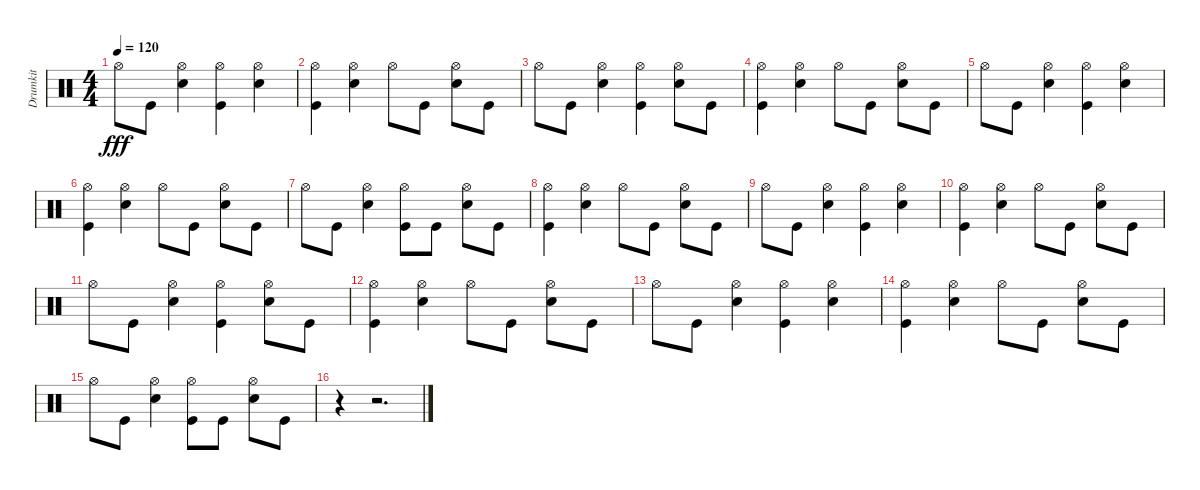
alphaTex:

\track ("Drumkit" "Drumkit") {instrument percussion}
\staff {score}
\articulation defaults
\ts (4 4)
\tempo 120
\clef neutral
\ks c "Hi-Hat (open)".8{dy fff} "Kick (hit)".8
("Snare (hit) 2" "Hi-Hat (open)").4 ("Hi-Hat (open)" "Kick (hit)").4 ("Hi-Hat (open)" "Snare (hit) 2").4 |
("Kick (hit)" "Hi-Hat (open)").4 ("Snare (hit) 2" "Hi-Hat (open)").4 "Hi-Hat (open)".8 "Kick (hit)".8 ("Hi-Hat (open)" "Snare (hit) 2").8 "Kick (hit)".8 |
"Hi-Hat (open)".8 "Kick (hit)".8 ("Snare (hit) 2" "Hi-Hat (open)").4 ("Hi-Hat (open)" "Kick (hit)").4 ("Hi-Hat (open)" "Snare (hit) 2").8 "Kick (hit)".8 |
("Kick (hit)" "Hi-Hat (open)").4 ("Snare (hit) 2" "Hi-Hat (open)").4 "Hi-Hat (open)".8 "Kick (hit)".8 ("Hi-Hat (open)" "Snare (hit) 2").8 "Kick (hit)".8 |
"Hi-Hat (open)".8 "Kick (hit)".8 ("Snare (hit) 2" "Hi-Hat (open)").4 ("Hi-Hat (open)" "Kick (hit)").4 ("Hi-Hat (open)" "Snare (hit) 2").4 |
("Kick (hit)" "Hi-Hat (open)").4 ("Snare (hit) 2" "Hi-Hat (open)").4 "Hi-Hat (open)".8 "Kick (hit)".8 ("Hi-Hat (open)" "Snare (hit) 2").8 "Kick (hit)".8 |
"Hi-Hat (open)".8 "Kick (hit)".8 ("Snare (hit) 2" "Hi-Hat (open)").4 ("Hi-Hat (open)" "Kick (hit)").8 "Kick (hit)".8 ("Hi-Hat (open)" "Snare (hit) 2").8 "Kick (hit)".8 |
("Kick (hit)" "Hi-Hat (open)").4 ("Snare (hit) 2" "Hi-Hat (open)").4 "Hi-Hat (open)".8 "Kick (hit)".8 ("Hi-Hat (open)" "Snare (hit) 2").8 "Kick (hit)".8 |
"Hi-Hat (open)".8 "Kick (hit)".8 ("Snare (hit) 2" "Hi-Hat (open)").4 ("Hi-Hat (open)" "Kick (hit)").4 ("Hi-Hat (open)" "Snare (hit) 2").4 |
("Kick (hit)" "Hi-Hat (open)").4 ("Snare (hit) 2" "Hi-Hat (open)").4 "Hi-Hat (open)".8 "Kick (hit)".8 ("Hi-Hat (open)" "Snare (hit) 2").8 "Kick (hit)".8 |
"Hi-Hat (open)".8 "Kick (hit)".8 ("Snare (hit) 2" "Hi-Hat (open)").4 ("Hi-Hat (open)" "Kick (hit)").4 ("Hi-Hat (open)" "Snare (hit) 2").8 "Kick (hit)".8 |
("Kick (hit)" "Hi-Hat (open)").4 ("Snare (hit) 2" "Hi-Hat (open)").4 "Hi-Hat (open)".8 "Kick (hit)".8 ("Hi-Hat (open)" "Snare (hit) 2").8 "Kick (hit)".8 |
"Hi-Hat (open)".8 "Kick (hit)".8 ("Snare (hit) 2" "Hi-Hat (open)").4 ("Hi-Hat (open)" "Kick (hit)").4 ("Hi-Hat (open)" "Snare (hit) 2").4 |
("Kick (hit)" "Hi-Hat (open)").4 ("Snare (hit) 2" "Hi-Hat (open)").4 "Hi-Hat (open)".8 "Kick (hit)".8 ("Hi-Hat (open)" "Snare (hit) 2").8 "Kick (hit)".8 |
"Hi-Hat (open)".8 "Kick (hit)".8 ("Snare (hit) 2" "Hi-Hat (open)").4 ("Hi-Hat (open)" "Kick (hit)").8 "Kick (hit)".8 ("Hi-Hat (open)" "Snare (hit) 2").8 "Kick (hit)".8 |
r.4 r.2{d}
